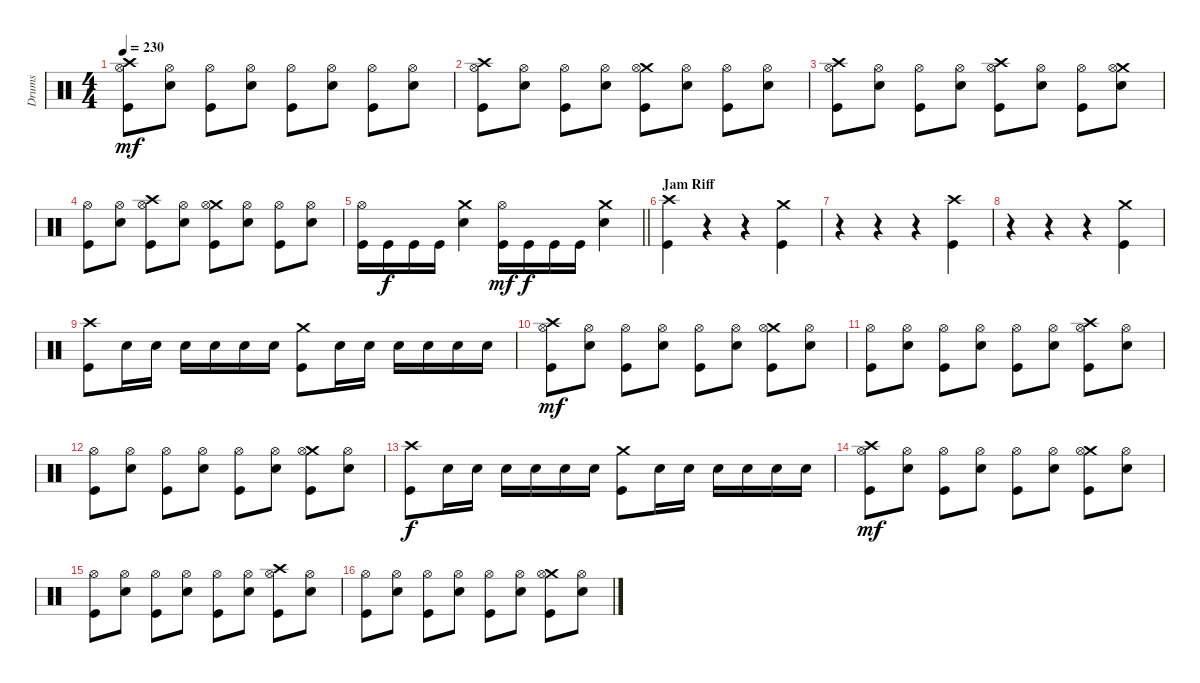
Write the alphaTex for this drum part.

\track ("Drums" "Drums") {instrument percussion}
\staff {score}
\articulation defaults
\ts (4 4)
\tempo 230
\clef neutral
\ks c
("Crash high (hit)" "Hi-Hat (open)" "Kick (hit)").8{dy mf} ("Hi-Hat (open)" "Electric Snare (hit)").8 ("Hi-Hat (open)" "Kick (hit)").8 ("Hi-Hat (open)" "Electric Snare (hit)").8 ("Hi-Hat (open)" "Kick (hit)").8 ("Hi-Hat (open)" "Electric Snare (hit)").8 ("Hi-Hat (open)" "Kick (hit)").8 ("Hi-Hat (open)" "Electric Snare (hit)").8 |
("Crash high (hit)" "Hi-Hat (open)" "Kick (hit)").8 ("Hi-Hat (open)" "Electric Snare (hit)").8 ("Hi-Hat (open)" "Kick (hit)").8 ("Hi-Hat (open)" "Electric Snare (hit)").8 ("Crash medium (hit)" "Hi-Hat (open)" "Kick (hit)").8 ("Hi-Hat (open)" "Electric Snare (hit)").8 ("Hi-Hat (open)" "Kick (hit)").8 ("Hi-Hat (open)" "Electric Snare (hit)").8 |
("Crash high (hit)" "Hi-Hat (open)" "Kick (hit)").8 ("Hi-Hat (open)" "Electric Snare (hit)").8 ("Hi-Hat (open)" "Kick (hit)").8 ("Hi-Hat (open)" "Electric Snare (hit)").8 ("Crash high (hit)" "Hi-Hat (open)" "Kick (hit)").8 ("Hi-Hat (open)" "Electric Snare (hit)").8 ("Hi-Hat (open)" "Kick (hit)").8 ("Crash medium (hit)" "Hi-Hat (open)" "Electric Snare (hit)").8 |
("Hi-Hat (open)" "Kick (hit)").8 ("Hi-Hat (open)" "Electric Snare (hit)").8 ("Crash high (hit)" "Hi-Hat (open)" "Kick (hit)").8 ("Hi-Hat (open)" "Electric Snare (hit)").8 ("Crash medium (hit)" "Hi-Hat (open)" "Kick (hit)").8 ("Hi-Hat (open)" "Electric Snare (hit)").8 ("Hi-Hat (open)" "Kick (hit)").8 ("Hi-Hat (open)" "Electric Snare (hit)").8 |
\barLineRight lightlight
("Hi-Hat (open)" "Kick (hit)").16 "Kick (hit)".16{dy f} "Kick (hit)".16 "Kick (hit)".16 ("Crash medium (hit)" "Electric Snare (hit)").4 ("Hi-Hat (open)" "Kick (hit)").16{dy mf} "Kick (hit)".16{dy f} "Kick (hit)".16 "Kick (hit)".16 ("Crash medium (hit)" "Electric Snare (hit)").4 |
\section ("" "Jam Riff")
("Crash high (hit)" "Kick (hit)").4 r.4 r.4 ("Crash medium (hit)" "Kick (hit)").4 |
r.4 r.4 r.4 ("Crash high (hit)" "Kick (hit)").4 |
r.4 r.4 r.4 ("Crash medium (hit)" "Kick (hit)").4 |
("Crash high (hit)" "Kick (hit)").8 "Electric Snare (hit)".16 "Electric Snare (hit)".16 "Electric Snare (hit)".16 "Electric Snare (hit)".16 "Electric Snare (hit)".16 "Electric Snare (hit)".16 ("Crash medium (hit)" "Kick (hit)").8 "Electric Snare (hit)".16 "Electric Snare (hit)".16 "Electric Snare (hit)".16 "Electric Snare (hit)".16 "Electric Snare (hit)".16 "Electric Snare (hit)".16 |
("Crash high (hit)" "Hi-Hat (open)" "Kick (hit)").8{dy mf} ("Hi-Hat (open)" "Electric Snare (hit)").8 ("Hi-Hat (open)" "Kick (hit)").8 ("Hi-Hat (open)" "Electric Snare (hit)").8 ("Hi-Hat (open)" "Kick (hit)").8 ("Hi-Hat (open)" "Electric Snare (hit)").8 ("Crash medium (hit)" "Hi-Hat (open)" "Kick (hit)").8 ("Hi-Hat (open)" "Electric Snare (hit)").8 |
("Hi-Hat (open)" "Kick (hit)").8 ("Hi-Hat (open)" "Electric Snare (hit)").8 ("Hi-Hat (open)" "Kick (hit)").8 ("Hi-Hat (open)" "Electric Snare (hit)").8 ("Hi-Hat (open)" "Kick (hit)").8 ("Hi-Hat (open)" "Electric Snare (hit)").8 ("Crash high (hit)" "Hi-Hat (open)" "Kick (hit)").8 ("Hi-Hat (open)" "Electric Snare (hit)").8 |
("Hi-Hat (open)" "Kick (hit)").8 ("Hi-Hat (open)" "Electric Snare (hit)").8 ("Hi-Hat (open)" "Kick (hit)").8 ("Hi-Hat (open)" "Electric Snare (hit)").8 ("Hi-Hat (open)" "Kick (hit)").8 ("Hi-Hat (open)" "Electric Snare (hit)").8 ("Crash medium (hit)" "Hi-Hat (open)" "Kick (hit)").8 ("Hi-Hat (open)" "Electric Snare (hit)").8 |
("Crash high (hit)" "Kick (hit)").8{dy f} "Electric Snare (hit)".16 "Electric Snare (hit)".16 "Electric Snare (hit)".16 "Electric Snare (hit)".16 "Electric Snare (hit)".16 "Electric Snare (hit)".16 ("Crash medium (hit)" "Kick (hit)").8 "Electric Snare (hit)".16 "Electric Snare (hit)".16 "Electric Snare (hit)".16 "Electric Snare (hit)".16 "Electric Snare (hit)".16 "Electric Snare (hit)".16 |
("Crash high (hit)" "Hi-Hat (open)" "Kick (hit)").8{dy mf} ("Hi-Hat (open)" "Electric Snare (hit)").8 ("Hi-Hat (open)" "Kick (hit)").8 ("Hi-Hat (open)" "Electric Snare (hit)").8 ("Hi-Hat (open)" "Kick (hit)").8 ("Hi-Hat (open)" "Electric Snare (hit)").8 ("Crash medium (hit)" "Hi-Hat (open)" "Kick (hit)").8 ("Hi-Hat (open)" "Electric Snare (hit)").8 |
("Hi-Hat (open)" "Kick (hit)").8 ("Hi-Hat (open)" "Electric Snare (hit)").8 ("Hi-Hat (open)" "Kick (hit)").8 ("Hi-Hat (open)" "Electric Snare (hit)").8 ("Hi-Hat (open)" "Kick (hit)").8 ("Hi-Hat (open)" "Electric Snare (hit)").8 ("Crash high (hit)" "Hi-Hat (open)" "Kick (hit)").8 ("Hi-Hat (open)" "Electric Snare (hit)").8 |
("Hi-Hat (open)" "Kick (hit)").8 ("Hi-Hat (open)" "Electric Snare (hit)").8 ("Hi-Hat (open)" "Kick (hit)").8 ("Hi-Hat (open)" "Electric Snare (hit)").8 ("Hi-Hat (open)" "Kick (hit)").8 ("Hi-Hat (open)" "Electric Snare (hit)").8 ("Crash medium (hit)" "Hi-Hat (open)" "Kick (hit)").8 ("Hi-Hat (open)" "Electric Snare (hit)").8
